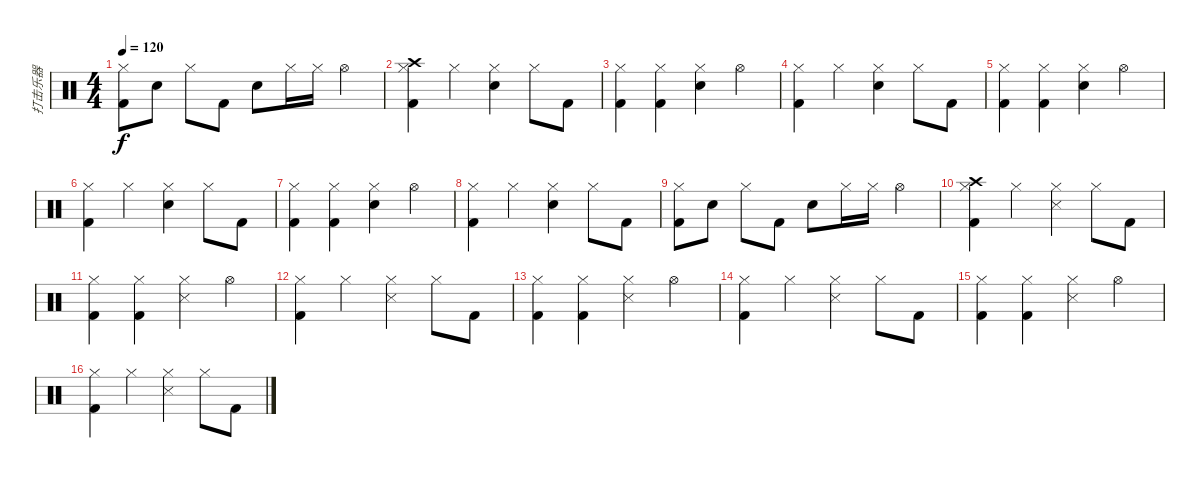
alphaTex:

\track ("打击乐器" "打击乐器") {instrument percussion}
\staff {score}
\articulation defaults
\ts (4 4)
\tempo 120
\clef neutral
\ks c
("Hi-Hat (closed)" "Kick (hit) 2").8{dy f} "Electric Snare (hit)".8 "Hi-Hat (closed)".8 "Kick (hit) 2".8 "Electric Snare (hit)".8 "Hi-Hat (closed)".16 "Hi-Hat (closed)".16 "Hi-Hat (open)".4 |
("Hi-Hat (closed)" "Crash high (hit)" "Kick (hit) 2").4 "Hi-Hat (closed)".4 ("Hi-Hat (closed)" "Electric Snare (hit)").4 "Hi-Hat (closed)".8 "Kick (hit) 2".8 |
("Hi-Hat (closed)" "Kick (hit) 2").4 ("Hi-Hat (closed)" "Kick (hit) 2").4 ("Hi-Hat (closed)" "Electric Snare (hit)").4 "Hi-Hat (open)".4 |
("Hi-Hat (closed)" "Kick (hit) 2").4 "Hi-Hat (closed)".4 ("Hi-Hat (closed)" "Electric Snare (hit)").4 "Hi-Hat (closed)".8 "Kick (hit) 2".8 |
("Hi-Hat (closed)" "Kick (hit) 2").4 ("Hi-Hat (closed)" "Kick (hit) 2").4 ("Hi-Hat (closed)" "Electric Snare (hit)").4 "Hi-Hat (open)".4 |
("Hi-Hat (closed)" "Kick (hit) 2").4 "Hi-Hat (closed)".4 ("Hi-Hat (closed)" "Electric Snare (hit)").4 "Hi-Hat (closed)".8 "Kick (hit) 2".8 |
("Hi-Hat (closed)" "Kick (hit) 2").4 ("Hi-Hat (closed)" "Kick (hit) 2").4 ("Hi-Hat (closed)" "Electric Snare (hit)").4 "Hi-Hat (open)".4 |
("Hi-Hat (closed)" "Kick (hit) 2").4 "Hi-Hat (closed)".4 ("Hi-Hat (closed)" "Electric Snare (hit)").4 "Hi-Hat (closed)".8 "Kick (hit) 2".8 |
("Hi-Hat (closed)" "Kick (hit) 2").8 "Electric Snare (hit)".8 "Hi-Hat (closed)".8 "Kick (hit) 2".8 "Electric Snare (hit)".8 "Hi-Hat (closed)".16 "Hi-Hat (closed)".16 "Hi-Hat (open)".4 |
("Hi-Hat (closed)" "Crash high (hit)" "Kick (hit) 2").4 "Hi-Hat (closed)".4 ("Hi-Hat (closed)" "Snare (side stick) 3").4 "Hi-Hat (closed)".8 "Kick (hit) 2".8 |
("Hi-Hat (closed)" "Kick (hit) 2").4 ("Hi-Hat (closed)" "Kick (hit) 2").4 ("Hi-Hat (closed)" "Snare (side stick) 3").4 "Hi-Hat (open)".4 |
("Hi-Hat (closed)" "Kick (hit) 2").4 "Hi-Hat (closed)".4 ("Hi-Hat (closed)" "Snare (side stick) 3").4 "Hi-Hat (closed)".8 "Kick (hit) 2".8 |
("Hi-Hat (closed)" "Kick (hit) 2").4 ("Hi-Hat (closed)" "Kick (hit) 2").4 ("Hi-Hat (closed)" "Snare (side stick) 3").4 "Hi-Hat (open)".4 |
("Hi-Hat (closed)" "Kick (hit) 2").4 "Hi-Hat (closed)".4 ("Hi-Hat (closed)" "Snare (side stick) 3").4 "Hi-Hat (closed)".8 "Kick (hit) 2".8 |
("Hi-Hat (closed)" "Kick (hit) 2").4 ("Hi-Hat (closed)" "Kick (hit) 2").4 ("Hi-Hat (closed)" "Snare (side stick) 3").4 "Hi-Hat (open)".4 |
("Hi-Hat (closed)" "Kick (hit) 2").4 "Hi-Hat (closed)".4 ("Hi-Hat (closed)" "Snare (side stick) 3").4 "Hi-Hat (closed)".8 "Kick (hit) 2".8
